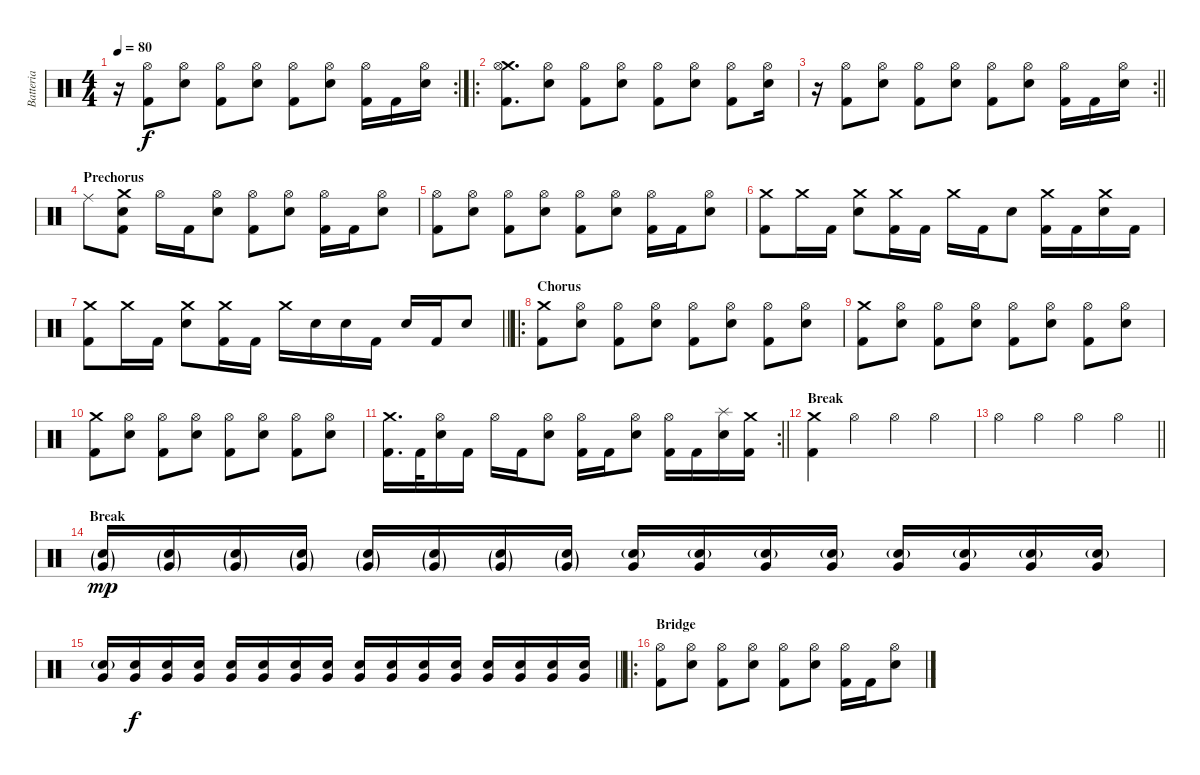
\track ("Batteria" "Batteria") {instrument percussion}
\staff {score}
\articulation defaults
\rc 2
\ts (4 4)
\tempo 80
\clef neutral
\ks c
r.16{dy f} ("Hi-Hat (open)" "Kick (hit) 2").8 ("Hi-Hat (open)" "Electric Snare (hit)").8 ("Hi-Hat (open)" "Kick (hit) 2").8 ("Hi-Hat (open)" "Electric Snare (hit)").8 ("Hi-Hat (open)" "Kick (hit) 2").8 ("Hi-Hat (open)" "Electric Snare (hit)").8 ("Hi-Hat (open)" "Kick (hit) 2").16 "Kick (hit) 2".16 ("Hi-Hat (open)" "Electric Snare (hit)").16 |
\ro
("Crash medium (hit)" "Hi-Hat (open)" "Kick (hit) 2").8{d} ("Hi-Hat (open)" "Electric Snare (hit)").8 ("Hi-Hat (open)" "Kick (hit) 2").8 ("Hi-Hat (open)" "Electric Snare (hit)").8 ("Hi-Hat (open)" "Kick (hit) 2").8 ("Hi-Hat (open)" "Electric Snare (hit)").8 ("Hi-Hat (open)" "Kick (hit) 2").8 ("Hi-Hat (open)" "Electric Snare (hit)").16 |
\rc 2
\barLineRight lightlight
r.16 ("Hi-Hat (open)" "Kick (hit) 2").8 ("Hi-Hat (open)" "Electric Snare (hit)").8 ("Hi-Hat (open)" "Kick (hit) 2").8 ("Hi-Hat (open)" "Electric Snare (hit)").8 ("Hi-Hat (open)" "Kick (hit) 2").8 ("Hi-Hat (open)" "Electric Snare (hit)").8 ("Hi-Hat (open)" "Kick (hit) 2").16 "Kick (hit) 2".16 ("Hi-Hat (open)" "Electric Snare (hit)").16 |
\section ("" "Prechorus")
"Ride (middle)".8 ("Crash medium (hit)" "Electric Snare (hit)" "Kick (hit) 2").8 "Hi-Hat (open)".16 "Kick (hit) 2".16 ("Hi-Hat (open)" "Electric Snare (hit)").8 ("Hi-Hat (open)" "Kick (hit) 2").8 ("Hi-Hat (open)" "Electric Snare (hit)").8 ("Hi-Hat (open)" "Kick (hit) 2").16 "Kick (hit) 2".16 ("Hi-Hat (open)" "Electric Snare (hit)").8 |
("Hi-Hat (open)" "Kick (hit) 2").8 ("Hi-Hat (open)" "Electric Snare (hit)").8 ("Hi-Hat (open)" "Kick (hit) 2").8 ("Hi-Hat (open)" "Electric Snare (hit)").8 ("Hi-Hat (open)" "Kick (hit) 2").8 ("Hi-Hat (open)" "Electric Snare (hit)").8 ("Hi-Hat (open)" "Kick (hit) 2").16 "Kick (hit) 2".16 ("Hi-Hat (open)" "Electric Snare (hit)").8 |
("Crash medium (hit)" "Kick (hit) 2").8 "Crash medium (hit)".16 "Kick (hit) 2".16 ("Crash medium (hit)" "Electric Snare (hit)").8 ("Crash medium (hit)" "Kick (hit) 2").16 "Kick (hit) 2".16 "Crash medium (hit)".16 "Kick (hit) 2".16 "Electric Snare (hit)".8 ("Crash medium (hit)" "Kick (hit) 2").16 "Kick (hit) 2".16 ("Crash medium (hit)" "Electric Snare (hit)").16 "Kick (hit) 2".16 |
\barLineRight lightlight
("Crash medium (hit)" "Kick (hit) 2").8 "Crash medium (hit)".16 "Kick (hit) 2".16 ("Crash medium (hit)" "Electric Snare (hit)").8 ("Crash medium (hit)" "Kick (hit) 2").16 "Kick (hit) 2".16 "Crash medium (hit)".16 "Electric Snare (hit)".16 "Electric Snare (hit)".16 "Kick (hit) 2".16 "Electric Snare (hit)".16 "Kick (hit) 2".16 "Electric Snare (hit)".8 |
\ro
\section ("" "Chorus")
("Crash medium (hit)" "Kick (hit) 2").8 ("Hi-Hat (open)" "Electric Snare (hit)").8 ("Hi-Hat (open)" "Kick (hit) 2").8 ("Hi-Hat (open)" "Electric Snare (hit)").8 ("Hi-Hat (open)" "Kick (hit) 2").8 ("Hi-Hat (open)" "Electric Snare (hit)").8 ("Hi-Hat (open)" "Kick (hit) 2").8 ("Hi-Hat (open)" "Electric Snare (hit)").8 |
("Crash medium (hit)" "Kick (hit) 2").8 ("Hi-Hat (open)" "Electric Snare (hit)").8 ("Hi-Hat (open)" "Kick (hit) 2").8 ("Hi-Hat (open)" "Electric Snare (hit)").8 ("Hi-Hat (open)" "Kick (hit) 2").8 ("Hi-Hat (open)" "Electric Snare (hit)").8 ("Hi-Hat (open)" "Kick (hit) 2").8 ("Hi-Hat (open)" "Electric Snare (hit)").8 |
("Crash medium (hit)" "Kick (hit) 2").8 ("Hi-Hat (open)" "Electric Snare (hit)").8 ("Hi-Hat (open)" "Kick (hit) 2").8 ("Hi-Hat (open)" "Electric Snare (hit)").8 ("Hi-Hat (open)" "Kick (hit) 2").8 ("Hi-Hat (open)" "Electric Snare (hit)").8 ("Hi-Hat (open)" "Kick (hit) 2").8 ("Hi-Hat (open)" "Electric Snare (hit)").8 |
\rc 2
\barLineRight lightlight
("Crash medium (hit)" "Kick (hit) 2").16{d} "Kick (hit) 2".32 ("Hi-Hat (open)" "Electric Snare (hit)").16 "Kick (hit) 2".16 "Hi-Hat (open)".16 "Kick (hit) 2".16 ("Hi-Hat (open)" "Electric Snare (hit)").8 ("Hi-Hat (open)" "Kick (hit) 2").16 "Kick (hit) 2".16 ("Hi-Hat (open)" "Electric Snare (hit)").8 ("Hi-Hat (open)" "Kick (hit) 2").16 "Kick (hit) 2".16 ("Splash (hit)" "Electric Snare (hit)").16 ("Crash medium (hit)" "Kick (hit) 2").16 |
\section ("" "Break")
("Crash medium (hit)" "Kick (hit) 2").4 "Hi-Hat (open)".4 "Hi-Hat (open)".4 "Hi-Hat (open)".4 |
\barLineRight lightlight "Hi-Hat (open)".4 "Hi-Hat (open)".4 "Hi-Hat (open)".4 "Hi-Hat (open)".4
|
\section ("" "Break")
("Very Low Tom (hit)"{g} "Electric Snare (hit)"{g}).16{dy mp} ("Very Low Tom (hit)"{g} "Electric Snare (hit)"{g}).16 ("Very Low Tom (hit)"{g} "Electric Snare (hit)"{g}).16 ("Very Low Tom (hit)"{g} "Electric Snare (hit)"{g}).16 ("Very Low Tom (hit)"{g} "Electric Snare (hit)"{g}).16 ("Very Low Tom (hit)"{g} "Electric Snare (hit)"{g}).16 ("Very Low Tom (hit)"{g} "Electric Snare (hit)"{g}).16 ("Very Low Tom (hit)"{g} "Electric Snare (hit)"{g}).16 ("Very Low Tom (hit)" "Electric Snare (hit)"{g}).16 ("Very Low Tom (hit)" "Electric Snare (hit)"{g}).16 ("Very Low Tom (hit)" "Electric Snare (hit)"{g}).16 ("Very Low Tom (hit)" "Electric Snare (hit)"{g}).16 ("Very Low Tom (hit)" "Electric Snare (hit)"{g}).16 ("Very Low Tom (hit)" "Electric Snare (hit)"{g}).16 ("Very Low Tom (hit)" "Electric Snare (hit)"{g}).16 ("Very Low Tom (hit)" "Electric Snare (hit)"{g}).16 |
\barLineRight lightlight
("Very Low Tom (hit)" "Electric Snare (hit)"{g}).16 ("Very Low Tom (hit)" "Electric Snare (hit)").16{dy f} ("Very Low Tom (hit)" "Electric Snare (hit)").16 ("Very Low Tom (hit)" "Electric Snare (hit)").16 ("Very Low Tom (hit)" "Electric Snare (hit)").16 ("Very Low Tom (hit)" "Electric Snare (hit)").16 ("Very Low Tom (hit)" "Electric Snare (hit)").16 ("Very Low Tom (hit)" "Electric Snare (hit)").16 ("Very Low Tom (hit)" "Electric Snare (hit)").16 ("Very Low Tom (hit)" "Electric Snare (hit)").16 ("Very Low Tom (hit)" "Electric Snare (hit)").16 ("Very Low Tom (hit)" "Electric Snare (hit)").16 ("Very Low Tom (hit)" "Electric Snare (hit)").16 ("Very Low Tom (hit)" "Electric Snare (hit)").16 ("Very Low Tom (hit)" "Electric Snare (hit)").16 ("Very Low Tom (hit)" "Electric Snare (hit)").16 |
\ro
\section ("" "Bridge")
("Hi-Hat (open)" "Kick (hit) 2").8 ("Hi-Hat (open)" "Electric Snare (hit)").8 ("Hi-Hat (open)" "Kick (hit) 2").8 ("Hi-Hat (open)" "Electric Snare (hit)").8 ("Hi-Hat (open)" "Kick (hit) 2").8 ("Hi-Hat (open)" "Electric Snare (hit)").8 ("Hi-Hat (open)" "Kick (hit) 2").16 "Kick (hit) 2".16 ("Hi-Hat (open)" "Electric Snare (hit)").8
